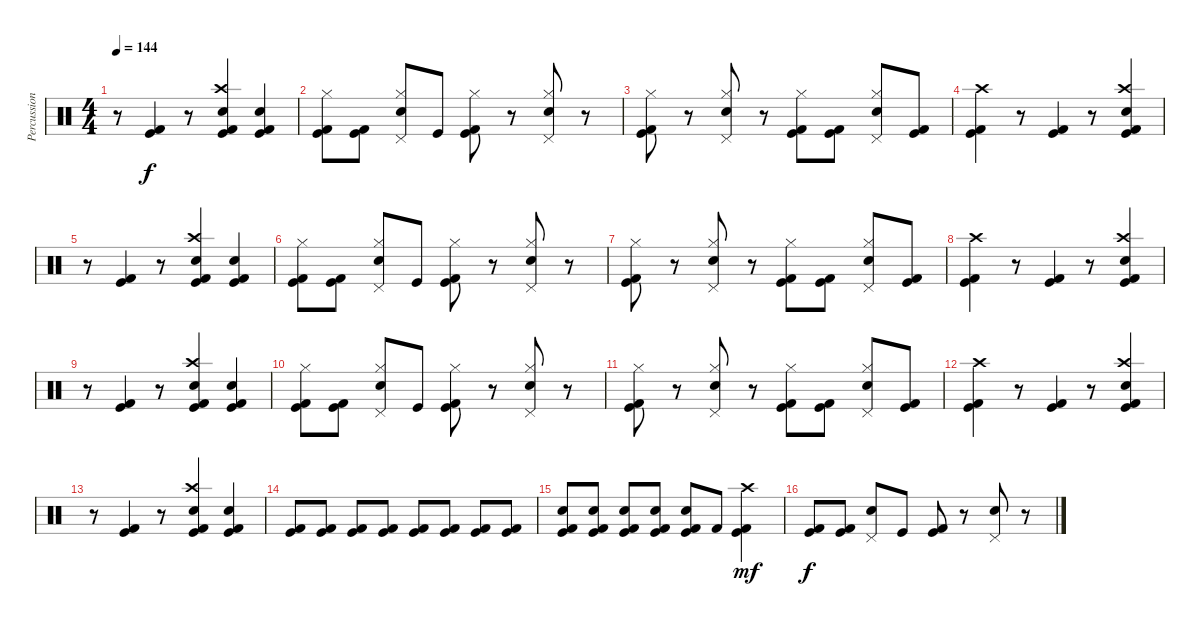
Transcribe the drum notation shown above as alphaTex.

\track ("Percussions" "Percussion") {instrument percussion}
\staff {score}
\articulation defaults
\ts (4 4)
\tempo 144
\clef neutral
\ks c
r.8{dy f} ("Kick (hit)" "Kick (hit) 2").4 r.8 ("Crash high (hit)" "Snare (hit) 2" "Kick (hit)" "Kick (hit) 2").4 ("Snare (hit) 2" "Kick (hit) 2" "Kick (hit)").4 |
("Hi-Hat (closed)" "Kick (hit)" "Kick (hit) 2").8 ("Kick (hit)" "Kick (hit) 2").8 ("Hi-Hat (closed)" "Pedal Hi-Hat (hit)" "Snare (hit) 2").8 "Kick (hit)".8 ("Hi-Hat (closed)" "Kick (hit)" "Kick (hit) 2").8 r.8 ("Hi-Hat (closed)" "Pedal Hi-Hat (hit)" "Snare (hit) 2").8 r.8 |
("Hi-Hat (closed)" "Kick (hit)" "Kick (hit) 2").8 r.8 ("Hi-Hat (closed)" "Pedal Hi-Hat (hit)" "Snare (hit) 2").8 r.8 ("Hi-Hat (closed)" "Kick (hit)" "Kick (hit) 2").8 ("Kick (hit)" "Kick (hit) 2").8 ("Hi-Hat (closed)" "Pedal Hi-Hat (hit)" "Snare (hit) 2").8 ("Kick (hit)" "Kick (hit) 2").8 |
("Crash high (hit)" "Kick (hit)" "Kick (hit) 2").4 r.8 ("Kick (hit)" "Kick (hit) 2").4 r.8 ("Crash high (hit)" "Snare (hit) 2" "Kick (hit)" "Kick (hit) 2").4 |
r.8 ("Kick (hit)" "Kick (hit) 2").4 r.8 ("Crash high (hit)" "Snare (hit) 2" "Kick (hit)" "Kick (hit) 2").4 ("Snare (hit) 2" "Kick (hit) 2" "Kick (hit)").4 |
("Hi-Hat (closed)" "Kick (hit)" "Kick (hit) 2").8 ("Kick (hit)" "Kick (hit) 2").8 ("Hi-Hat (closed)" "Pedal Hi-Hat (hit)" "Snare (hit) 2").8 "Kick (hit)".8 ("Hi-Hat (closed)" "Kick (hit)" "Kick (hit) 2").8 r.8 ("Hi-Hat (closed)" "Pedal Hi-Hat (hit)" "Snare (hit) 2").8 r.8 |
("Hi-Hat (closed)" "Kick (hit)" "Kick (hit) 2").8 r.8 ("Hi-Hat (closed)" "Pedal Hi-Hat (hit)" "Snare (hit) 2").8 r.8 ("Hi-Hat (closed)" "Kick (hit)" "Kick (hit) 2").8 ("Kick (hit)" "Kick (hit) 2").8 ("Hi-Hat (closed)" "Pedal Hi-Hat (hit)" "Snare (hit) 2").8 ("Kick (hit)" "Kick (hit) 2").8 |
("Crash high (hit)" "Kick (hit)" "Kick (hit) 2").4 r.8 ("Kick (hit)" "Kick (hit) 2").4 r.8 ("Crash high (hit)" "Snare (hit) 2" "Kick (hit)" "Kick (hit) 2").4 |
r.8 ("Kick (hit)" "Kick (hit) 2").4 r.8 ("Crash high (hit)" "Snare (hit) 2" "Kick (hit)" "Kick (hit) 2").4 ("Snare (hit) 2" "Kick (hit) 2" "Kick (hit)").4 |
("Hi-Hat (closed)" "Kick (hit)" "Kick (hit) 2").8 ("Kick (hit)" "Kick (hit) 2").8 ("Hi-Hat (closed)" "Pedal Hi-Hat (hit)" "Snare (hit) 2").8 "Kick (hit)".8 ("Hi-Hat (closed)" "Kick (hit)" "Kick (hit) 2").8 r.8 ("Hi-Hat (closed)" "Pedal Hi-Hat (hit)" "Snare (hit) 2").8 r.8 |
("Hi-Hat (closed)" "Kick (hit)" "Kick (hit) 2").8 r.8 ("Hi-Hat (closed)" "Pedal Hi-Hat (hit)" "Snare (hit) 2").8 r.8 ("Hi-Hat (closed)" "Kick (hit)" "Kick (hit) 2").8 ("Kick (hit)" "Kick (hit) 2").8 ("Hi-Hat (closed)" "Pedal Hi-Hat (hit)" "Snare (hit) 2").8 ("Kick (hit)" "Kick (hit) 2").8 |
("Crash high (hit)" "Kick (hit)" "Kick (hit) 2").4 r.8 ("Kick (hit)" "Kick (hit) 2").4 r.8 ("Crash high (hit)" "Snare (hit) 2" "Kick (hit)" "Kick (hit) 2").4 |
r.8 ("Kick (hit)" "Kick (hit) 2").4 r.8 ("Crash high (hit)" "Snare (hit) 2" "Kick (hit)" "Kick (hit) 2").4 ("Snare (hit) 2" "Kick (hit) 2" "Kick (hit)").4 |
("Kick (hit)" "Kick (hit) 2").8 ("Kick (hit)" "Kick (hit) 2").8 ("Kick (hit)" "Kick (hit) 2").8 ("Kick (hit)" "Kick (hit) 2").8 ("Kick (hit)" "Kick (hit) 2").8 ("Kick (hit)" "Kick (hit) 2").8 ("Kick (hit)" "Kick (hit) 2").8 ("Kick (hit)" "Kick (hit) 2").8 |
("Snare (hit) 2" "Kick (hit)" "Kick (hit) 2").8 ("Snare (hit) 2" "Kick (hit)" "Kick (hit) 2").8 ("Snare (hit) 2" "Kick (hit)" "Kick (hit) 2").8 ("Snare (hit) 2" "Kick (hit)" "Kick (hit) 2").8 ("Snare (hit) 2" "Kick (hit)" "Kick (hit) 2").8 "Kick (hit) 2".8 ("Crash high (hit)" "Kick (hit)" "Kick (hit) 2").4{dy mf} |
("Kick (hit)" "Kick (hit) 2").8{dy f} ("Kick (hit)" "Kick (hit) 2").8 ("Pedal Hi-Hat (hit)" "Snare (hit) 2").8 "Kick (hit)".8 ("Kick (hit)" "Kick (hit) 2").8 r.8 ("Pedal Hi-Hat (hit)" "Snare (hit) 2").8 r.8
